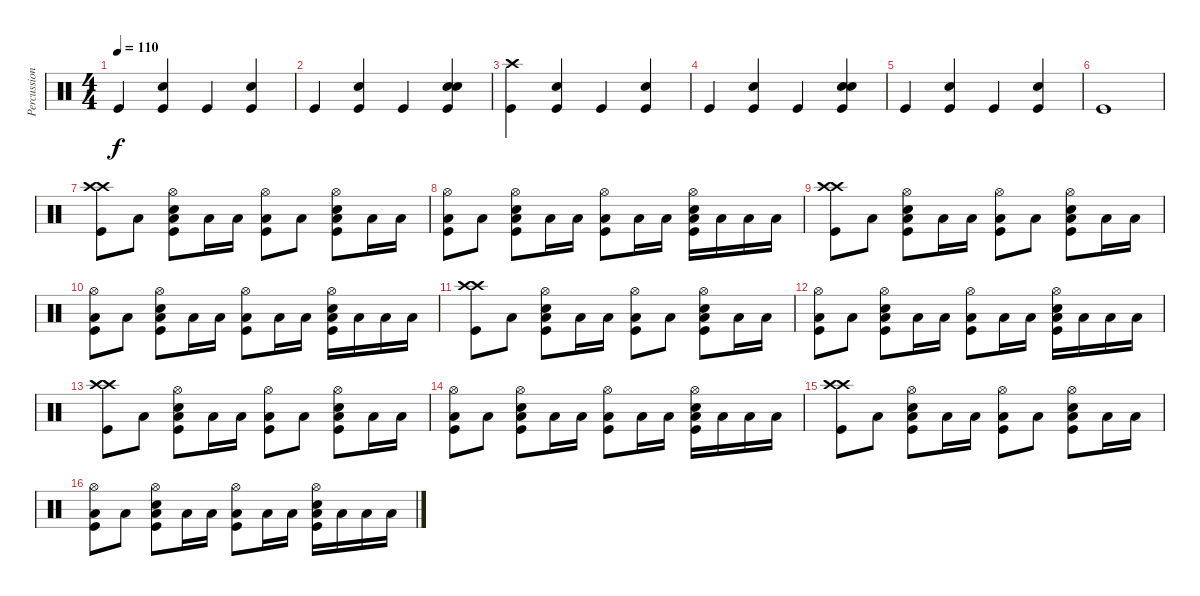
\track ("Percussion" "Percussion") {instrument percussion}
\staff {score}
\articulation defaults
\ts (4 4)
\tempo 110
\clef neutral
\ks c "Kick (hit)".4{dy f}
("Snare (hit) 2" "Kick (hit)").4 "Kick (hit)".4 ("Kick (hit)" "Snare (hit) 2").4 |
"Kick (hit)".4 ("Snare (hit) 2" "Kick (hit)").4 "Kick (hit)".4 ("Kick (hit)" "Snare (hit) 2" "Hand Clap (hit)").4 |
("Crash high (hit)" "Kick (hit)").4 ("Snare (hit) 2" "Kick (hit)").4 "Kick (hit)".4 ("Snare (hit) 2" "Kick (hit)").4 |
"Kick (hit)".4 ("Snare (hit) 2" "Kick (hit)").4 "Kick (hit)".4 ("Hand Clap (hit)" "Snare (hit) 2" "Kick (hit)").4 |
"Kick (hit)".4 ("Snare (hit) 2" "Kick (hit)").4 "Kick (hit)".4 ("Kick (hit)" "Snare (hit) 2").4 |
"Kick (hit)".1 |
("Crash high (hit)" "Kick (hit)" "Crash high (hit)").8 "Low Floor Tom (hit)".8 ("Kick (hit)" "Low Floor Tom (hit)" "Snare (hit) 2" "Hi-Hat (open)").8 "Low Floor Tom (hit)".16 "Low Floor Tom (hit)".16 ("Kick (hit)" "Low Floor Tom (hit)" "Hi-Hat (open)").8 "Low Floor Tom (hit)".8 ("Low Floor Tom (hit)" "Kick (hit)" "Snare (hit) 2" "Hi-Hat (open)").8 "Low Floor Tom (hit)".16 "Low Floor Tom (hit)".16 |
("Kick (hit)" "Low Floor Tom (hit)" "Hi-Hat (open)").8 "Low Floor Tom (hit)".8 ("Low Floor Tom (hit)" "Kick (hit)" "Snare (hit) 2" "Hi-Hat (open)").8 "Low Floor Tom (hit)".16 "Low Floor Tom (hit)".16 ("Kick (hit)" "Low Floor Tom (hit)" "Hi-Hat (open)").8 "Low Floor Tom (hit)".16 "Low Floor Tom (hit)".16 ("Low Floor Tom (hit)" "Kick (hit)" "Snare (hit) 2" "Hi-Hat (open)").16 "Low Floor Tom (hit)".16 "Low Floor Tom (hit)".16 "Low Floor Tom (hit)".16 |
("Crash high (hit)" "Kick (hit)" "Crash high (hit)").8 "Low Floor Tom (hit)".8 ("Kick (hit)" "Low Floor Tom (hit)" "Snare (hit) 2" "Hi-Hat (open)").8 "Low Floor Tom (hit)".16 "Low Floor Tom (hit)".16 ("Kick (hit)" "Low Floor Tom (hit)" "Hi-Hat (open)").8 "Low Floor Tom (hit)".8 ("Low Floor Tom (hit)" "Kick (hit)" "Snare (hit) 2" "Hi-Hat (open)").8 "Low Floor Tom (hit)".16 "Low Floor Tom (hit)".16 |
("Kick (hit)" "Low Floor Tom (hit)" "Hi-Hat (open)").8 "Low Floor Tom (hit)".8 ("Low Floor Tom (hit)" "Kick (hit)" "Snare (hit) 2" "Hi-Hat (open)").8 "Low Floor Tom (hit)".16 "Low Floor Tom (hit)".16 ("Kick (hit)" "Low Floor Tom (hit)" "Hi-Hat (open)").8 "Low Floor Tom (hit)".16 "Low Floor Tom (hit)".16 ("Low Floor Tom (hit)" "Kick (hit)" "Snare (hit) 2" "Hi-Hat (open)").16 "Low Floor Tom (hit)".16 "Low Floor Tom (hit)".16 "Low Floor Tom (hit)".16 |
("Crash high (hit)" "Kick (hit)" "Crash high (hit)").8 "Low Floor Tom (hit)".8 ("Kick (hit)" "Low Floor Tom (hit)" "Snare (hit) 2" "Hi-Hat (open)").8 "Low Floor Tom (hit)".16 "Low Floor Tom (hit)".16 ("Kick (hit)" "Low Floor Tom (hit)" "Hi-Hat (open)").8 "Low Floor Tom (hit)".8 ("Low Floor Tom (hit)" "Kick (hit)" "Snare (hit) 2" "Hi-Hat (open)").8 "Low Floor Tom (hit)".16 "Low Floor Tom (hit)".16 |
("Kick (hit)" "Low Floor Tom (hit)" "Hi-Hat (open)").8 "Low Floor Tom (hit)".8 ("Low Floor Tom (hit)" "Kick (hit)" "Snare (hit) 2" "Hi-Hat (open)").8 "Low Floor Tom (hit)".16 "Low Floor Tom (hit)".16 ("Kick (hit)" "Low Floor Tom (hit)" "Hi-Hat (open)").8 "Low Floor Tom (hit)".16 "Low Floor Tom (hit)".16 ("Low Floor Tom (hit)" "Kick (hit)" "Snare (hit) 2" "Hi-Hat (open)").16 "Low Floor Tom (hit)".16 "Low Floor Tom (hit)".16 "Low Floor Tom (hit)".16 |
("Crash high (hit)" "Kick (hit)" "Crash high (hit)").8 "Low Floor Tom (hit)".8 ("Kick (hit)" "Low Floor Tom (hit)" "Snare (hit) 2" "Hi-Hat (open)").8 "Low Floor Tom (hit)".16 "Low Floor Tom (hit)".16 ("Kick (hit)" "Low Floor Tom (hit)" "Hi-Hat (open)").8 "Low Floor Tom (hit)".8 ("Low Floor Tom (hit)" "Kick (hit)" "Snare (hit) 2" "Hi-Hat (open)").8 "Low Floor Tom (hit)".16 "Low Floor Tom (hit)".16 |
("Kick (hit)" "Low Floor Tom (hit)" "Hi-Hat (open)").8 "Low Floor Tom (hit)".8 ("Low Floor Tom (hit)" "Kick (hit)" "Snare (hit) 2" "Hi-Hat (open)").8 "Low Floor Tom (hit)".16 "Low Floor Tom (hit)".16 ("Kick (hit)" "Low Floor Tom (hit)" "Hi-Hat (open)").8 "Low Floor Tom (hit)".16 "Low Floor Tom (hit)".16 ("Low Floor Tom (hit)" "Kick (hit)" "Snare (hit) 2" "Hi-Hat (open)").16 "Low Floor Tom (hit)".16 "Low Floor Tom (hit)".16 "Low Floor Tom (hit)".16 |
("Crash high (hit)" "Kick (hit)" "Crash high (hit)").8 "Low Floor Tom (hit)".8 ("Kick (hit)" "Low Floor Tom (hit)" "Snare (hit) 2" "Hi-Hat (open)").8 "Low Floor Tom (hit)".16 "Low Floor Tom (hit)".16 ("Kick (hit)" "Low Floor Tom (hit)" "Hi-Hat (open)").8 "Low Floor Tom (hit)".8 ("Low Floor Tom (hit)" "Kick (hit)" "Snare (hit) 2" "Hi-Hat (open)").8 "Low Floor Tom (hit)".16 "Low Floor Tom (hit)".16 |
("Kick (hit)" "Low Floor Tom (hit)" "Hi-Hat (open)").8 "Low Floor Tom (hit)".8 ("Low Floor Tom (hit)" "Kick (hit)" "Snare (hit) 2" "Hi-Hat (open)").8 "Low Floor Tom (hit)".16 "Low Floor Tom (hit)".16 ("Kick (hit)" "Low Floor Tom (hit)" "Hi-Hat (open)").8 "Low Floor Tom (hit)".16 "Low Floor Tom (hit)".16 ("Low Floor Tom (hit)" "Kick (hit)" "Snare (hit) 2" "Hi-Hat (open)").16 "Low Floor Tom (hit)".16 "Low Floor Tom (hit)".16 "Low Floor Tom (hit)".16
